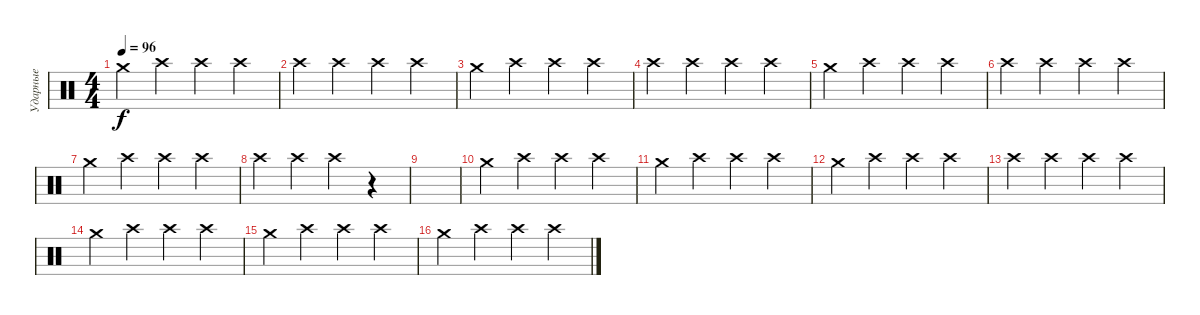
\track ("Ударные" "Ударные") {instrument percussion}
\staff {score}
\articulation defaults
\ts (4 4)
\tempo 96
\clef neutral
\ks c "Crash medium (hit)".4{dy f} "Crash high (hit)".4 "Crash high (hit)".4 "Crash high (hit)".4
|
"Crash high (hit)".4 "Crash high (hit)".4 "Crash high (hit)".4 "Crash high (hit)".4 |
"Crash medium (hit)".4 "Crash high (hit)".4 "Crash high (hit)".4 "Crash high (hit)".4 |
"Crash high (hit)".4 "Crash high (hit)".4 "Crash high (hit)".4 "Crash high (hit)".4 |
"Crash medium (hit)".4 "Crash high (hit)".4 "Crash high (hit)".4 "Crash high (hit)".4 |
"Crash high (hit)".4 "Crash high (hit)".4 "Crash high (hit)".4 "Crash high (hit)".4 |
"Crash medium (hit)".4 "Crash high (hit)".4 "Crash high (hit)".4 "Crash high (hit)".4 |
"Crash high (hit)".4 "Crash high (hit)".4 "Crash high (hit)".4 r.4 |
|
"Crash medium (hit)".4 "Crash high (hit)".4 "Crash high (hit)".4 "Crash high (hit)".4 |
"Crash medium (hit)".4 "Crash high (hit)".4 "Crash high (hit)".4 "Crash high (hit)".4 |
"Crash medium (hit)".4 "Crash high (hit)".4 "Crash high (hit)".4 "Crash high (hit)".4 |
"Crash high (hit)".4 "Crash high (hit)".4 "Crash high (hit)".4 "Crash high (hit)".4 |
"Crash medium (hit)".4 "Crash high (hit)".4 "Crash high (hit)".4 "Crash high (hit)".4 |
"Crash medium (hit)".4 "Crash high (hit)".4 "Crash high (hit)".4 "Crash high (hit)".4 |
"Crash medium (hit)".4 "Crash high (hit)".4 "Crash high (hit)".4 "Crash high (hit)".4
